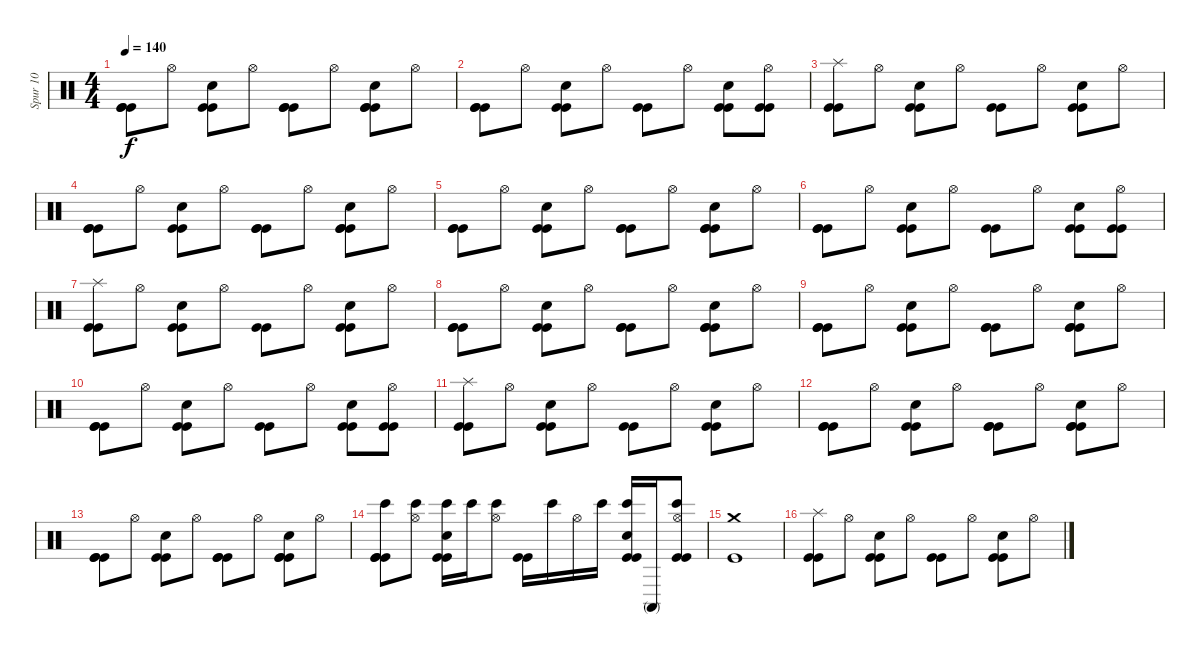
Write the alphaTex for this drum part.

\track ("Spur 10" "Spur 10") {instrument percussion}
\staff {score}
\articulation defaults
\ts (4 4)
\tempo 140
\clef neutral
\ks c
("Kick (hit)" "Kick (hit)" "Kick (hit)").8{dy f} "Hi-Hat (open)".8 ("Kick (hit)" "Kick (hit)" "Hand Clap (hit)").8 "Hi-Hat (open)".8 ("Kick (hit)" "Kick (hit)" "Kick (hit)").8 "Hi-Hat (open)".8 ("Kick (hit)" "Kick (hit)" "Hand Clap (hit)" "Kick (hit)").8 "Hi-Hat (open)".8 |
("Kick (hit)" "Kick (hit)" "Kick (hit)").8 "Hi-Hat (open)".8 ("Kick (hit)" "Kick (hit)" "Hand Clap (hit)").8 "Hi-Hat (open)".8 ("Kick (hit)" "Kick (hit)").8 "Hi-Hat (open)".8 ("Kick (hit)" "Hand Clap (hit)" "Kick (hit)").8 ("Kick (hit)" "Kick (hit)" "Hi-Hat (open)").8 |
("Kick (hit)" "Kick (hit)" "Splash (hit)").8 "Hi-Hat (open)".8 ("Kick (hit)" "Hand Clap (hit)" "Kick (hit)").8 "Hi-Hat (open)".8 ("Kick (hit)" "Kick (hit)").8 "Hi-Hat (open)".8 ("Kick (hit)" "Hand Clap (hit)" "Kick (hit)").8 "Hi-Hat (open)".8 |
("Kick (hit)" "Kick (hit)" "Kick (hit)").8 "Hi-Hat (open)".8 ("Kick (hit)" "Kick (hit)" "Hand Clap (hit)").8 "Hi-Hat (open)".8 ("Kick (hit)" "Kick (hit)" "Kick (hit)").8 "Hi-Hat (open)".8 ("Kick (hit)" "Kick (hit)" "Hand Clap (hit)" "Kick (hit)").8 "Hi-Hat (open)".8 |
("Kick (hit)" "Kick (hit)" "Kick (hit)").8 "Hi-Hat (open)".8 ("Kick (hit)" "Kick (hit)" "Hand Clap (hit)").8 "Hi-Hat (open)".8 ("Kick (hit)" "Kick (hit)" "Kick (hit)").8 "Hi-Hat (open)".8 ("Kick (hit)" "Kick (hit)" "Hand Clap (hit)" "Kick (hit)").8 "Hi-Hat (open)".8 |
("Kick (hit)" "Kick (hit)" "Kick (hit)").8 "Hi-Hat (open)".8 ("Kick (hit)" "Kick (hit)" "Hand Clap (hit)").8 "Hi-Hat (open)".8 ("Kick (hit)" "Kick (hit)").8 "Hi-Hat (open)".8 ("Kick (hit)" "Hand Clap (hit)" "Kick (hit)").8 ("Kick (hit)" "Kick (hit)" "Hi-Hat (open)").8 |
("Kick (hit)" "Kick (hit)" "Splash (hit)").8 "Hi-Hat (open)".8 ("Kick (hit)" "Hand Clap (hit)" "Kick (hit)").8 "Hi-Hat (open)".8 ("Kick (hit)" "Kick (hit)").8 "Hi-Hat (open)".8 ("Kick (hit)" "Hand Clap (hit)" "Kick (hit)").8 "Hi-Hat (open)".8 |
("Kick (hit)" "Kick (hit)" "Kick (hit)").8 "Hi-Hat (open)".8 ("Kick (hit)" "Kick (hit)" "Hand Clap (hit)").8 "Hi-Hat (open)".8 ("Kick (hit)" "Kick (hit)" "Kick (hit)").8 "Hi-Hat (open)".8 ("Kick (hit)" "Kick (hit)" "Hand Clap (hit)" "Kick (hit)").8 "Hi-Hat (open)".8 |
("Kick (hit)" "Kick (hit)" "Kick (hit)").8 "Hi-Hat (open)".8 ("Kick (hit)" "Kick (hit)" "Hand Clap (hit)").8 "Hi-Hat (open)".8 ("Kick (hit)" "Kick (hit)" "Kick (hit)").8 "Hi-Hat (open)".8 ("Kick (hit)" "Kick (hit)" "Hand Clap (hit)" "Kick (hit)").8 "Hi-Hat (open)".8 |
("Kick (hit)" "Kick (hit)" "Kick (hit)").8 "Hi-Hat (open)".8 ("Kick (hit)" "Kick (hit)" "Hand Clap (hit)").8 "Hi-Hat (open)".8 ("Kick (hit)" "Kick (hit)").8 "Hi-Hat (open)".8 ("Kick (hit)" "Hand Clap (hit)" "Kick (hit)").8 ("Kick (hit)" "Kick (hit)" "Hi-Hat (open)").8 |
("Kick (hit)" "Kick (hit)" "Splash (hit)").8 "Hi-Hat (open)".8 ("Kick (hit)" "Hand Clap (hit)" "Kick (hit)").8 "Hi-Hat (open)".8 ("Kick (hit)" "Kick (hit)").8 "Hi-Hat (open)".8 ("Kick (hit)" "Hand Clap (hit)" "Kick (hit)").8 "Hi-Hat (open)".8 |
("Kick (hit)" "Kick (hit)" "Kick (hit)").8 "Hi-Hat (open)".8 ("Kick (hit)" "Kick (hit)" "Hand Clap (hit)").8 "Hi-Hat (open)".8 ("Kick (hit)" "Kick (hit)" "Kick (hit)").8 "Hi-Hat (open)".8 ("Kick (hit)" "Kick (hit)" "Hand Clap (hit)" "Kick (hit)").8 "Hi-Hat (open)".8 |
("Kick (hit)" "Kick (hit)" "Kick (hit)").8 "Hi-Hat (open)".8 ("Kick (hit)" "Kick (hit)" "Hand Clap (hit)").8 "Hi-Hat (open)".8 ("Kick (hit)" "Kick (hit)" "Kick (hit)").8 "Hi-Hat (open)".8 ("Kick (hit)" "Kick (hit)" "Hand Clap (hit)" "Kick (hit)").8 "Hi-Hat (open)".8 |
("Bongo High (hit)" "Kick (hit)" "Kick (hit)" "Kick (hit)").8 ("Bongo High (hit)" "Hi-Hat (open)").8 ("Bongo High (hit)" "Kick (hit)" "Kick (hit)" "Hand Clap (hit)").16 "Bongo High (hit)".16 ("Bongo High (hit)" "Hi-Hat (open)").8 ("Kick (hit)" "Kick (hit)").16 "Bongo High (hit)".16 "Hi-Hat (open)".16 "Bongo High (hit)".16 ("Bongo High (hit)" "Kick (hit)" "Hand Clap (hit)" "Kick (hit)").16 "Conga high (mute)".16 ("Bongo High (hit)" "Kick (hit)" "Kick (hit)" "Hi-Hat (open)").8 |
("Crash medium (hit)" "Kick (hit)").1 |
("Kick (hit)" "Kick (hit)" "Splash (hit)").8 "Hi-Hat (open)".8 ("Kick (hit)" "Hand Clap (hit)" "Kick (hit)").8 "Hi-Hat (open)".8 ("Kick (hit)" "Kick (hit)").8 "Hi-Hat (open)".8 ("Kick (hit)" "Hand Clap (hit)" "Kick (hit)").8 "Hi-Hat (open)".8
